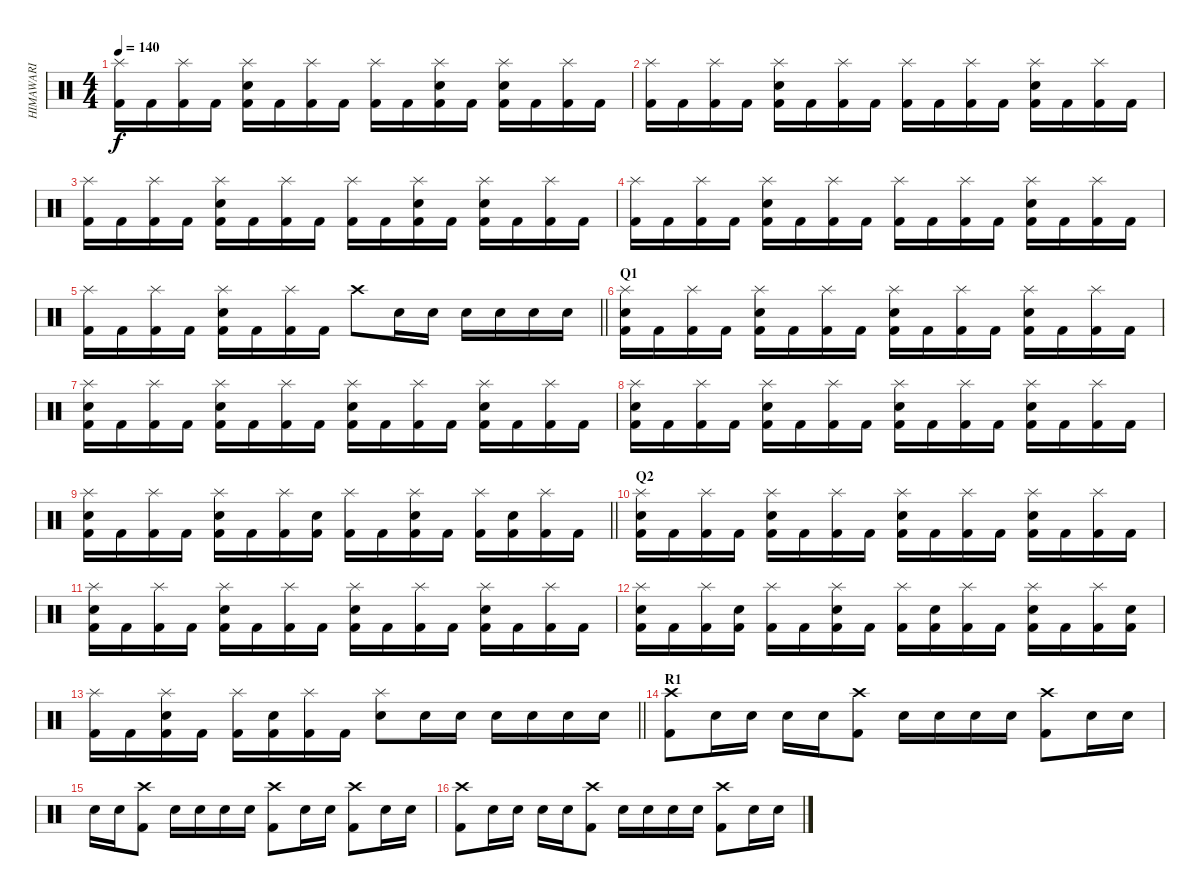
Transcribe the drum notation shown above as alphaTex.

\track ("HIMAWARI" "HIMAWARI") {instrument percussion}
\staff {score}
\articulation defaults
\ts (4 4)
\tempo 140
\clef neutral
\ks c
("Splash (hit)" "Kick (hit) 2").16{dy f} "Kick (hit) 2".16 ("Splash (hit)" "Kick (hit) 2").16 "Kick (hit) 2".16 ("Splash (hit)" "Kick (hit) 2" "Snare (hit) 2").16 "Kick (hit) 2".16 ("Splash (hit)" "Kick (hit) 2").16 "Kick (hit) 2".16 ("Splash (hit)" "Kick (hit) 2").16 "Kick (hit) 2".16 ("Splash (hit)" "Kick (hit) 2" "Snare (hit) 2").16 "Kick (hit) 2".16 ("Splash (hit)" "Kick (hit) 2" "Snare (hit) 2").16 "Kick (hit) 2".16 ("Splash (hit)" "Kick (hit) 2").16 "Kick (hit) 2".16 |
("Splash (hit)" "Kick (hit) 2").16 "Kick (hit) 2".16 ("Splash (hit)" "Kick (hit) 2").16 "Kick (hit) 2".16 ("Splash (hit)" "Kick (hit) 2" "Snare (hit) 2").16 "Kick (hit) 2".16 ("Splash (hit)" "Kick (hit) 2").16 "Kick (hit) 2".16 ("Splash (hit)" "Kick (hit) 2").16 "Kick (hit) 2".16 ("Splash (hit)" "Kick (hit) 2").16 "Kick (hit) 2".16 ("Splash (hit)" "Kick (hit) 2" "Snare (hit) 2").16 "Kick (hit) 2".16 ("Splash (hit)" "Kick (hit) 2").16 "Kick (hit) 2".16 |
("Splash (hit)" "Kick (hit) 2").16 "Kick (hit) 2".16 ("Splash (hit)" "Kick (hit) 2").16 "Kick (hit) 2".16 ("Splash (hit)" "Kick (hit) 2" "Snare (hit) 2").16 "Kick (hit) 2".16 ("Splash (hit)" "Kick (hit) 2").16 "Kick (hit) 2".16 ("Splash (hit)" "Kick (hit) 2").16 "Kick (hit) 2".16 ("Splash (hit)" "Kick (hit) 2" "Snare (hit) 2").16 "Kick (hit) 2".16 ("Splash (hit)" "Kick (hit) 2" "Snare (hit) 2").16 "Kick (hit) 2".16 ("Splash (hit)" "Kick (hit) 2").16 "Kick (hit) 2".16 |
("Splash (hit)" "Kick (hit) 2").16 "Kick (hit) 2".16 ("Splash (hit)" "Kick (hit) 2").16 "Kick (hit) 2".16 ("Splash (hit)" "Kick (hit) 2" "Snare (hit) 2").16 "Kick (hit) 2".16 ("Splash (hit)" "Kick (hit) 2").16 "Kick (hit) 2".16 ("Splash (hit)" "Kick (hit) 2").16 "Kick (hit) 2".16 ("Splash (hit)" "Kick (hit) 2").16 "Kick (hit) 2".16 ("Splash (hit)" "Kick (hit) 2" "Snare (hit) 2").16 "Kick (hit) 2".16 ("Splash (hit)" "Kick (hit) 2").16 "Kick (hit) 2".16 |
\barLineRight lightlight
("Splash (hit)" "Kick (hit) 2").16 "Kick (hit) 2".16 ("Splash (hit)" "Kick (hit) 2").16 "Kick (hit) 2".16 ("Splash (hit)" "Kick (hit) 2" "Snare (hit) 2").16 "Kick (hit) 2".16 ("Splash (hit)" "Kick (hit) 2").16 "Kick (hit) 2".16 "Crash high (hit)".8 "Snare (hit) 2".16 "Snare (hit) 2".16 "Snare (hit) 2".16 "Snare (hit) 2".16 "Snare (hit) 2".16 "Snare (hit) 2".16 |
\section ("" "Q1")
("Splash (hit)" "Kick (hit) 2" "Snare (hit) 2").16 "Kick (hit) 2".16 ("Splash (hit)" "Kick (hit) 2").16 "Kick (hit) 2".16 ("Splash (hit)" "Kick (hit) 2" "Snare (hit) 2").16 "Kick (hit) 2".16 ("Splash (hit)" "Kick (hit) 2").16 "Kick (hit) 2".16 ("Splash (hit)" "Kick (hit) 2" "Snare (hit) 2").16 "Kick (hit) 2".16 ("Splash (hit)" "Kick (hit) 2").16 "Kick (hit) 2".16 ("Splash (hit)" "Kick (hit) 2" "Snare (hit) 2").16 "Kick (hit) 2".16 ("Splash (hit)" "Kick (hit) 2").16 "Kick (hit) 2".16 |
("Splash (hit)" "Kick (hit) 2" "Snare (hit) 2").16 "Kick (hit) 2".16 ("Splash (hit)" "Kick (hit) 2").16 "Kick (hit) 2".16 ("Splash (hit)" "Kick (hit) 2" "Snare (hit) 2").16 "Kick (hit) 2".16 ("Splash (hit)" "Kick (hit) 2").16 "Kick (hit) 2".16 ("Splash (hit)" "Kick (hit) 2" "Snare (hit) 2").16 "Kick (hit) 2".16 ("Splash (hit)" "Kick (hit) 2").16 "Kick (hit) 2".16 ("Splash (hit)" "Kick (hit) 2" "Snare (hit) 2").16 "Kick (hit) 2".16 ("Splash (hit)" "Kick (hit) 2").16 "Kick (hit) 2".16 |
("Splash (hit)" "Kick (hit) 2" "Snare (hit) 2").16 "Kick (hit) 2".16 ("Splash (hit)" "Kick (hit) 2").16 "Kick (hit) 2".16 ("Splash (hit)" "Kick (hit) 2" "Snare (hit) 2").16 "Kick (hit) 2".16 ("Splash (hit)" "Kick (hit) 2").16 "Kick (hit) 2".16 ("Splash (hit)" "Kick (hit) 2" "Snare (hit) 2").16 "Kick (hit) 2".16 ("Splash (hit)" "Kick (hit) 2").16 "Kick (hit) 2".16 ("Splash (hit)" "Kick (hit) 2" "Snare (hit) 2").16 "Kick (hit) 2".16 ("Splash (hit)" "Kick (hit) 2").16 "Kick (hit) 2".16 |
\barLineRight lightlight
("Splash (hit)" "Kick (hit) 2" "Snare (hit) 2").16 "Kick (hit) 2".16 ("Splash (hit)" "Kick (hit) 2").16 "Kick (hit) 2".16 ("Splash (hit)" "Kick (hit) 2" "Snare (hit) 2").16 "Kick (hit) 2".16 ("Splash (hit)" "Kick (hit) 2").16 ("Kick (hit) 2" "Snare (hit) 2").16 ("Splash (hit)" "Kick (hit) 2").16 "Kick (hit) 2".16 ("Splash (hit)" "Kick (hit) 2" "Snare (hit) 2").16 "Kick (hit) 2".16 ("Splash (hit)" "Kick (hit) 2").16 ("Kick (hit) 2" "Snare (hit) 2").16 ("Splash (hit)" "Kick (hit) 2").16 "Kick (hit) 2".16 |
\section ("" "Q2")
("Splash (hit)" "Kick (hit) 2" "Snare (hit) 2").16 "Kick (hit) 2".16 ("Splash (hit)" "Kick (hit) 2").16 "Kick (hit) 2".16 ("Splash (hit)" "Kick (hit) 2" "Snare (hit) 2").16 "Kick (hit) 2".16 ("Splash (hit)" "Kick (hit) 2").16 "Kick (hit) 2".16 ("Splash (hit)" "Kick (hit) 2" "Snare (hit) 2").16 "Kick (hit) 2".16 ("Splash (hit)" "Kick (hit) 2").16 "Kick (hit) 2".16 ("Splash (hit)" "Kick (hit) 2" "Snare (hit) 2").16 "Kick (hit) 2".16 ("Splash (hit)" "Kick (hit) 2").16 "Kick (hit) 2".16 |
("Splash (hit)" "Kick (hit) 2" "Snare (hit) 2").16 "Kick (hit) 2".16 ("Splash (hit)" "Kick (hit) 2").16 "Kick (hit) 2".16 ("Splash (hit)" "Kick (hit) 2" "Snare (hit) 2").16 "Kick (hit) 2".16 ("Splash (hit)" "Kick (hit) 2").16 "Kick (hit) 2".16 ("Splash (hit)" "Kick (hit) 2" "Snare (hit) 2").16 "Kick (hit) 2".16 ("Splash (hit)" "Kick (hit) 2").16 "Kick (hit) 2".16 ("Splash (hit)" "Kick (hit) 2" "Snare (hit) 2").16 "Kick (hit) 2".16 ("Splash (hit)" "Kick (hit) 2").16 "Kick (hit) 2".16 |
("Splash (hit)" "Kick (hit) 2" "Snare (hit) 2").16 "Kick (hit) 2".16 ("Splash (hit)" "Kick (hit) 2").16 ("Kick (hit) 2" "Snare (hit) 2").16 ("Splash (hit)" "Kick (hit) 2").16 "Kick (hit) 2".16 ("Splash (hit)" "Kick (hit) 2" "Snare (hit) 2").16 "Kick (hit) 2".16 ("Splash (hit)" "Kick (hit) 2").16 ("Kick (hit) 2" "Snare (hit) 2").16 ("Splash (hit)" "Kick (hit) 2").16 "Kick (hit) 2".16 ("Splash (hit)" "Kick (hit) 2" "Snare (hit) 2").16 "Kick (hit) 2".16 ("Splash (hit)" "Kick (hit) 2").16 ("Kick (hit) 2" "Snare (hit) 2").16 |
\barLineRight lightlight
("Splash (hit)" "Kick (hit) 2").16 "Kick (hit) 2".16 ("Splash (hit)" "Kick (hit) 2" "Snare (hit) 2").16 "Kick (hit) 2".16 ("Splash (hit)" "Kick (hit) 2").16 ("Kick (hit) 2" "Snare (hit) 2").16 ("Splash (hit)" "Kick (hit) 2").16 "Kick (hit) 2".16 ("Splash (hit)" "Snare (hit) 2").8 "Snare (hit) 2".16 "Snare (hit) 2".16 "Snare (hit) 2".16 "Snare (hit) 2".16 "Snare (hit) 2".16 "Snare (hit) 2".16 |
\section ("" "R1")
("Crash high (hit)" "Kick (hit) 2").8 "Snare (hit) 2".16 "Snare (hit) 2".16 "Snare (hit) 2".16 "Snare (hit) 2".16 ("Crash high (hit)" "Kick (hit) 2").8 "Snare (hit) 2".16 "Snare (hit) 2".16 "Snare (hit) 2".16 "Snare (hit) 2".16 ("Crash high (hit)" "Kick (hit) 2").8 "Snare (hit) 2".16 "Snare (hit) 2".16 |
"Snare (hit) 2".16 "Snare (hit) 2".16 ("Crash high (hit)" "Kick (hit) 2").8 "Snare (hit) 2".16 "Snare (hit) 2".16 "Snare (hit) 2".16 "Snare (hit) 2".16 ("Crash high (hit)" "Kick (hit) 2").8 "Snare (hit) 2".16 "Snare (hit) 2".16 ("Crash high (hit)" "Kick (hit) 2").8 "Snare (hit) 2".16 "Snare (hit) 2".16 |
("Crash high (hit)" "Kick (hit) 2").8 "Snare (hit) 2".16 "Snare (hit) 2".16 "Snare (hit) 2".16 "Snare (hit) 2".16 ("Crash high (hit)" "Kick (hit) 2").8 "Snare (hit) 2".16 "Snare (hit) 2".16 "Snare (hit) 2".16 "Snare (hit) 2".16 ("Crash high (hit)" "Kick (hit) 2").8 "Snare (hit) 2".16 "Snare (hit) 2".16
